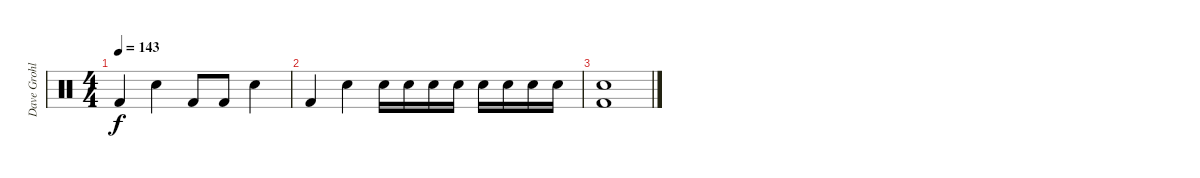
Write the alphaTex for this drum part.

\track ("Dave Grohl" "Dave Grohl") {instrument percussion}
\staff {score}
\articulation defaults
\ts (4 4)
\tempo 143
\clef neutral
\ks c "Kick (hit) 2".4{dy f} "Snare (hit) 2".4 "Kick (hit) 2".8 "Kick (hit) 2".8 "Snare (hit) 2".4
|
"Kick (hit) 2".4 "Snare (hit) 2".4 "Snare (hit) 2".16 "Snare (hit) 2".16 "Snare (hit) 2".16 "Snare (hit) 2".16 "Snare (hit) 2".16 "Snare (hit) 2".16 "Snare (hit) 2".16 "Snare (hit) 2".16 |
("Kick (hit) 2" "Snare (hit) 2").1
